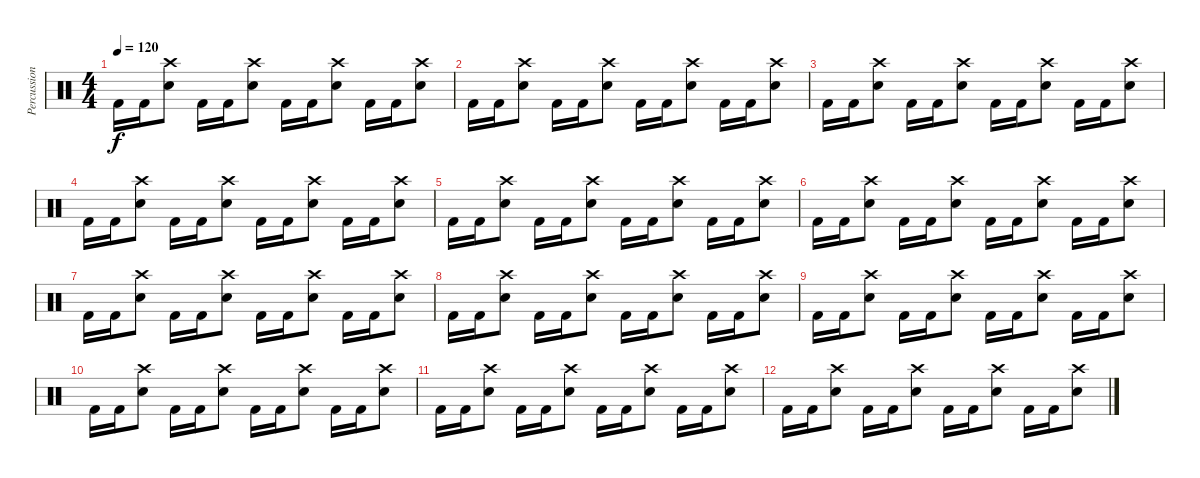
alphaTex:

\track ("Percussion" "Percussion") {instrument percussion}
\staff {score}
\articulation defaults
\ts (4 4)
\tempo 120
\clef neutral
\ks c "Kick (hit) 2".16{dy f} "Kick (hit) 2".16
("Crash high (hit)" "Electric Snare (hit)").8 "Kick (hit) 2".16 "Kick (hit) 2".16 ("Crash high (hit)" "Electric Snare (hit)").8 "Kick (hit) 2".16 "Kick (hit) 2".16 ("Crash high (hit)" "Electric Snare (hit)").8 "Kick (hit) 2".16 "Kick (hit) 2".16 ("Crash high (hit)" "Electric Snare (hit)").8 |
"Kick (hit) 2".16 "Kick (hit) 2".16 ("Crash high (hit)" "Electric Snare (hit)").8 "Kick (hit) 2".16 "Kick (hit) 2".16 ("Crash high (hit)" "Electric Snare (hit)").8 "Kick (hit) 2".16 "Kick (hit) 2".16 ("Crash high (hit)" "Electric Snare (hit)").8 "Kick (hit) 2".16 "Kick (hit) 2".16 ("Crash high (hit)" "Electric Snare (hit)").8 |
"Kick (hit) 2".16 "Kick (hit) 2".16 ("Crash high (hit)" "Electric Snare (hit)").8 "Kick (hit) 2".16 "Kick (hit) 2".16 ("Crash high (hit)" "Electric Snare (hit)").8 "Kick (hit) 2".16 "Kick (hit) 2".16 ("Crash high (hit)" "Electric Snare (hit)").8 "Kick (hit) 2".16 "Kick (hit) 2".16 ("Crash high (hit)" "Electric Snare (hit)").8 |
"Kick (hit) 2".16 "Kick (hit) 2".16 ("Crash high (hit)" "Electric Snare (hit)").8 "Kick (hit) 2".16 "Kick (hit) 2".16 ("Crash high (hit)" "Electric Snare (hit)").8 "Kick (hit) 2".16 "Kick (hit) 2".16 ("Crash high (hit)" "Electric Snare (hit)").8 "Kick (hit) 2".16 "Kick (hit) 2".16 ("Crash high (hit)" "Electric Snare (hit)").8 |
"Kick (hit) 2".16 "Kick (hit) 2".16 ("Crash high (hit)" "Electric Snare (hit)").8 "Kick (hit) 2".16 "Kick (hit) 2".16 ("Crash high (hit)" "Electric Snare (hit)").8 "Kick (hit) 2".16 "Kick (hit) 2".16 ("Crash high (hit)" "Electric Snare (hit)").8 "Kick (hit) 2".16 "Kick (hit) 2".16 ("Crash high (hit)" "Electric Snare (hit)").8 |
"Kick (hit) 2".16 "Kick (hit) 2".16 ("Crash high (hit)" "Electric Snare (hit)").8 "Kick (hit) 2".16 "Kick (hit) 2".16 ("Crash high (hit)" "Electric Snare (hit)").8 "Kick (hit) 2".16 "Kick (hit) 2".16 ("Crash high (hit)" "Electric Snare (hit)").8 "Kick (hit) 2".16 "Kick (hit) 2".16 ("Crash high (hit)" "Electric Snare (hit)").8 |
"Kick (hit) 2".16 "Kick (hit) 2".16 ("Crash high (hit)" "Electric Snare (hit)").8 "Kick (hit) 2".16 "Kick (hit) 2".16 ("Crash high (hit)" "Electric Snare (hit)").8 "Kick (hit) 2".16 "Kick (hit) 2".16 ("Crash high (hit)" "Electric Snare (hit)").8 "Kick (hit) 2".16 "Kick (hit) 2".16 ("Crash high (hit)" "Electric Snare (hit)").8 |
"Kick (hit) 2".16 "Kick (hit) 2".16 ("Crash high (hit)" "Electric Snare (hit)").8 "Kick (hit) 2".16 "Kick (hit) 2".16 ("Crash high (hit)" "Electric Snare (hit)").8 "Kick (hit) 2".16 "Kick (hit) 2".16 ("Crash high (hit)" "Electric Snare (hit)").8 "Kick (hit) 2".16 "Kick (hit) 2".16 ("Crash high (hit)" "Electric Snare (hit)").8 |
"Kick (hit) 2".16 "Kick (hit) 2".16 ("Crash high (hit)" "Electric Snare (hit)").8 "Kick (hit) 2".16 "Kick (hit) 2".16 ("Crash high (hit)" "Electric Snare (hit)").8 "Kick (hit) 2".16 "Kick (hit) 2".16 ("Crash high (hit)" "Electric Snare (hit)").8 "Kick (hit) 2".16 "Kick (hit) 2".16 ("Crash high (hit)" "Electric Snare (hit)").8 |
"Kick (hit) 2".16 "Kick (hit) 2".16 ("Crash high (hit)" "Electric Snare (hit)").8 "Kick (hit) 2".16 "Kick (hit) 2".16 ("Crash high (hit)" "Electric Snare (hit)").8 "Kick (hit) 2".16 "Kick (hit) 2".16 ("Crash high (hit)" "Electric Snare (hit)").8 "Kick (hit) 2".16 "Kick (hit) 2".16 ("Crash high (hit)" "Electric Snare (hit)").8 |
"Kick (hit) 2".16 "Kick (hit) 2".16 ("Crash high (hit)" "Electric Snare (hit)").8 "Kick (hit) 2".16 "Kick (hit) 2".16 ("Crash high (hit)" "Electric Snare (hit)").8 "Kick (hit) 2".16 "Kick (hit) 2".16 ("Crash high (hit)" "Electric Snare (hit)").8 "Kick (hit) 2".16 "Kick (hit) 2".16 ("Crash high (hit)" "Electric Snare (hit)").8 |
"Kick (hit) 2".16 "Kick (hit) 2".16 ("Crash high (hit)" "Electric Snare (hit)").8 "Kick (hit) 2".16 "Kick (hit) 2".16 ("Crash high (hit)" "Electric Snare (hit)").8 "Kick (hit) 2".16 "Kick (hit) 2".16 ("Crash high (hit)" "Electric Snare (hit)").8 "Kick (hit) 2".16 "Kick (hit) 2".16 ("Crash high (hit)" "Electric Snare (hit)").8
